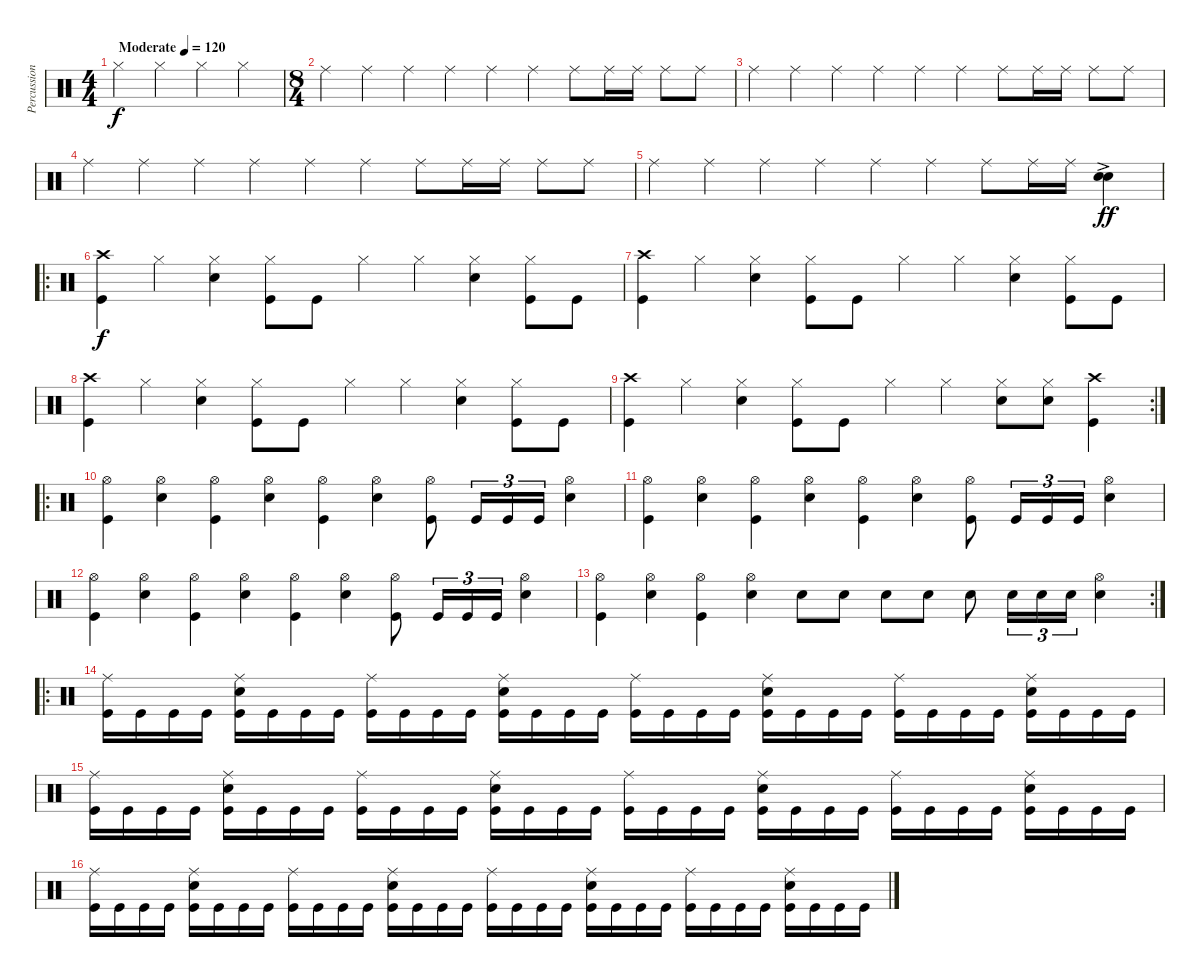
\track ("Percussion" "Percussion") {instrument percussion}
\staff {score}
\articulation defaults
\ts (4 4)
\tempo (120 "Moderate")
\clef neutral
\ks c "Hi-Hat (closed)".4{dy f} "Hi-Hat (closed)".4 "Hi-Hat (closed)".4 "Hi-Hat (closed)".4
|
\ts (8 4)
"Ride (middle)".4 "Ride (middle)".4 "Ride (middle)".4 "Ride (middle)".4 "Ride (middle)".4 "Ride (middle)".4 "Ride (middle)".8 "Ride (middle)".16 "Ride (middle)".16 "Ride (middle)".8 "Ride (middle)".8 |
"Ride (middle)".4 "Ride (middle)".4 "Ride (middle)".4 "Ride (middle)".4 "Ride (middle)".4 "Ride (middle)".4 "Ride (middle)".8 "Ride (middle)".16 "Ride (middle)".16 "Ride (middle)".8 "Ride (middle)".8 |
"Ride (middle)".4 "Ride (middle)".4 "Ride (middle)".4 "Ride (middle)".4 "Ride (middle)".4 "Ride (middle)".4 "Ride (middle)".8 "Ride (middle)".16 "Ride (middle)".16 "Ride (middle)".8 "Ride (middle)".8 |
"Ride (middle)".4 "Ride (middle)".4 "Ride (middle)".4 "Ride (middle)".4 "Ride (middle)".4 "Ride (middle)".4 "Ride (middle)".8 "Ride (middle)".16 "Ride (middle)".16 ("Snare (hit) 2"{ac} "Snare (hit) 2").4{dy ff} |
\ro
("Crash high (hit)" "Kick (hit)").4{dy f} "Hi-Hat (closed)".4 ("Hi-Hat (closed)" "Snare (hit) 2").4 ("Hi-Hat (closed)" "Kick (hit)").8 "Kick (hit)".8 "Hi-Hat (closed)".4 "Hi-Hat (closed)".4 ("Hi-Hat (closed)" "Snare (hit) 2").4 ("Hi-Hat (closed)" "Kick (hit)").8 "Kick (hit)".8 |
("Crash high (hit)" "Kick (hit)").4 "Hi-Hat (closed)".4 ("Hi-Hat (closed)" "Snare (hit) 2").4 ("Hi-Hat (closed)" "Kick (hit)").8 "Kick (hit)".8 "Hi-Hat (closed)".4 "Hi-Hat (closed)".4 ("Hi-Hat (closed)" "Snare (hit) 2").4 ("Hi-Hat (closed)" "Kick (hit)").8 "Kick (hit)".8 |
("Crash high (hit)" "Kick (hit)").4 "Hi-Hat (closed)".4 ("Hi-Hat (closed)" "Snare (hit) 2").4 ("Hi-Hat (closed)" "Kick (hit)").8 "Kick (hit)".8 "Hi-Hat (closed)".4 "Hi-Hat (closed)".4 ("Hi-Hat (closed)" "Snare (hit) 2").4 ("Hi-Hat (closed)" "Kick (hit)").8 "Kick (hit)".8 |
\rc 2
("Crash high (hit)" "Kick (hit)").4 "Hi-Hat (closed)".4 ("Hi-Hat (closed)" "Snare (hit) 2").4 ("Hi-Hat (closed)" "Kick (hit)").8 "Kick (hit)".8 "Hi-Hat (closed)".4 "Hi-Hat (closed)".4 ("Hi-Hat (closed)" "Snare (hit) 2").8 ("Hi-Hat (closed)" "Snare (hit) 2").8 ("Crash high (hit)" "Kick (hit)").4 |
\ro
("Kick (hit)" "Hi-Hat (open)").4 ("Snare (hit) 2" "Hi-Hat (open)").4 ("Kick (hit)" "Hi-Hat (open)").4 ("Snare (hit) 2" "Hi-Hat (open)").4 ("Kick (hit)" "Hi-Hat (open)").4 ("Snare (hit) 2" "Hi-Hat (open)").4 ("Kick (hit)" "Hi-Hat (open)").8 "Kick (hit)".16{tu (3 2)} "Kick (hit)".16{tu (3 2)} "Kick (hit)".16{tu (3 2)} ("Snare (hit) 2" "Hi-Hat (open)").4 |
("Kick (hit)" "Hi-Hat (open)").4 ("Snare (hit) 2" "Hi-Hat (open)").4 ("Kick (hit)" "Hi-Hat (open)").4 ("Snare (hit) 2" "Hi-Hat (open)").4 ("Kick (hit)" "Hi-Hat (open)").4 ("Snare (hit) 2" "Hi-Hat (open)").4 ("Kick (hit)" "Hi-Hat (open)").8 "Kick (hit)".16{tu (3 2)} "Kick (hit)".16{tu (3 2)} "Kick (hit)".16{tu (3 2)} ("Snare (hit) 2" "Hi-Hat (open)").4 |
("Kick (hit)" "Hi-Hat (open)").4 ("Snare (hit) 2" "Hi-Hat (open)").4 ("Kick (hit)" "Hi-Hat (open)").4 ("Snare (hit) 2" "Hi-Hat (open)").4 ("Kick (hit)" "Hi-Hat (open)").4 ("Snare (hit) 2" "Hi-Hat (open)").4 ("Kick (hit)" "Hi-Hat (open)").8 "Kick (hit)".16{tu (3 2)} "Kick (hit)".16{tu (3 2)} "Kick (hit)".16{tu (3 2)} ("Snare (hit) 2" "Hi-Hat (open)").4 |
\rc 2
("Kick (hit)" "Hi-Hat (open)").4 ("Snare (hit) 2" "Hi-Hat (open)").4 ("Kick (hit)" "Hi-Hat (open)").4 ("Snare (hit) 2" "Hi-Hat (open)").4 "Snare (hit) 2".8 "Snare (hit) 2".8 "Snare (hit) 2".8 "Snare (hit) 2".8 "Snare (hit) 2".8 "Snare (hit) 2".16{tu (3 2)} "Snare (hit) 2".16{tu (3 2)} "Snare (hit) 2".16{tu (3 2)} ("Snare (hit) 2" "Hi-Hat (open)").4 |
\ro
("Ride (middle)" "Kick (hit)").16 "Kick (hit)".16 "Kick (hit)".16 "Kick (hit)".16 ("Snare (hit) 2" "Kick (hit)" "Ride (middle)").16 "Kick (hit)".16 "Kick (hit)".16 "Kick (hit)".16 ("Ride (middle)" "Kick (hit)").16 "Kick (hit)".16 "Kick (hit)".16 "Kick (hit)".16 ("Snare (hit) 2" "Kick (hit)" "Ride (middle)").16 "Kick (hit)".16 "Kick (hit)".16 "Kick (hit)".16 ("Ride (middle)" "Kick (hit)").16 "Kick (hit)".16 "Kick (hit)".16 "Kick (hit)".16 ("Snare (hit) 2" "Kick (hit)" "Ride (middle)").16 "Kick (hit)".16 "Kick (hit)".16 "Kick (hit)".16 ("Ride (middle)" "Kick (hit)").16 "Kick (hit)".16 "Kick (hit)".16 "Kick (hit)".16 ("Snare (hit) 2" "Kick (hit)" "Ride (middle)").16 "Kick (hit)".16 "Kick (hit)".16 "Kick (hit)".16 |
("Ride (middle)" "Kick (hit)").16 "Kick (hit)".16 "Kick (hit)".16 "Kick (hit)".16 ("Snare (hit) 2" "Kick (hit)" "Ride (middle)").16 "Kick (hit)".16 "Kick (hit)".16 "Kick (hit)".16 ("Ride (middle)" "Kick (hit)").16 "Kick (hit)".16 "Kick (hit)".16 "Kick (hit)".16 ("Snare (hit) 2" "Kick (hit)" "Ride (middle)").16 "Kick (hit)".16 "Kick (hit)".16 "Kick (hit)".16 ("Ride (middle)" "Kick (hit)").16 "Kick (hit)".16 "Kick (hit)".16 "Kick (hit)".16 ("Snare (hit) 2" "Kick (hit)" "Ride (middle)").16 "Kick (hit)".16 "Kick (hit)".16 "Kick (hit)".16 ("Ride (middle)" "Kick (hit)").16 "Kick (hit)".16 "Kick (hit)".16 "Kick (hit)".16 ("Snare (hit) 2" "Kick (hit)" "Ride (middle)").16 "Kick (hit)".16 "Kick (hit)".16 "Kick (hit)".16 |
("Ride (middle)" "Kick (hit)").16 "Kick (hit)".16 "Kick (hit)".16 "Kick (hit)".16 ("Snare (hit) 2" "Kick (hit)" "Ride (middle)").16 "Kick (hit)".16 "Kick (hit)".16 "Kick (hit)".16 ("Ride (middle)" "Kick (hit)").16 "Kick (hit)".16 "Kick (hit)".16 "Kick (hit)".16 ("Snare (hit) 2" "Kick (hit)" "Ride (middle)").16 "Kick (hit)".16 "Kick (hit)".16 "Kick (hit)".16 ("Ride (middle)" "Kick (hit)").16 "Kick (hit)".16 "Kick (hit)".16 "Kick (hit)".16 ("Snare (hit) 2" "Kick (hit)" "Ride (middle)").16 "Kick (hit)".16 "Kick (hit)".16 "Kick (hit)".16 ("Ride (middle)" "Kick (hit)").16 "Kick (hit)".16 "Kick (hit)".16 "Kick (hit)".16 ("Snare (hit) 2" "Kick (hit)" "Ride (middle)").16 "Kick (hit)".16 "Kick (hit)".16 "Kick (hit)".16
